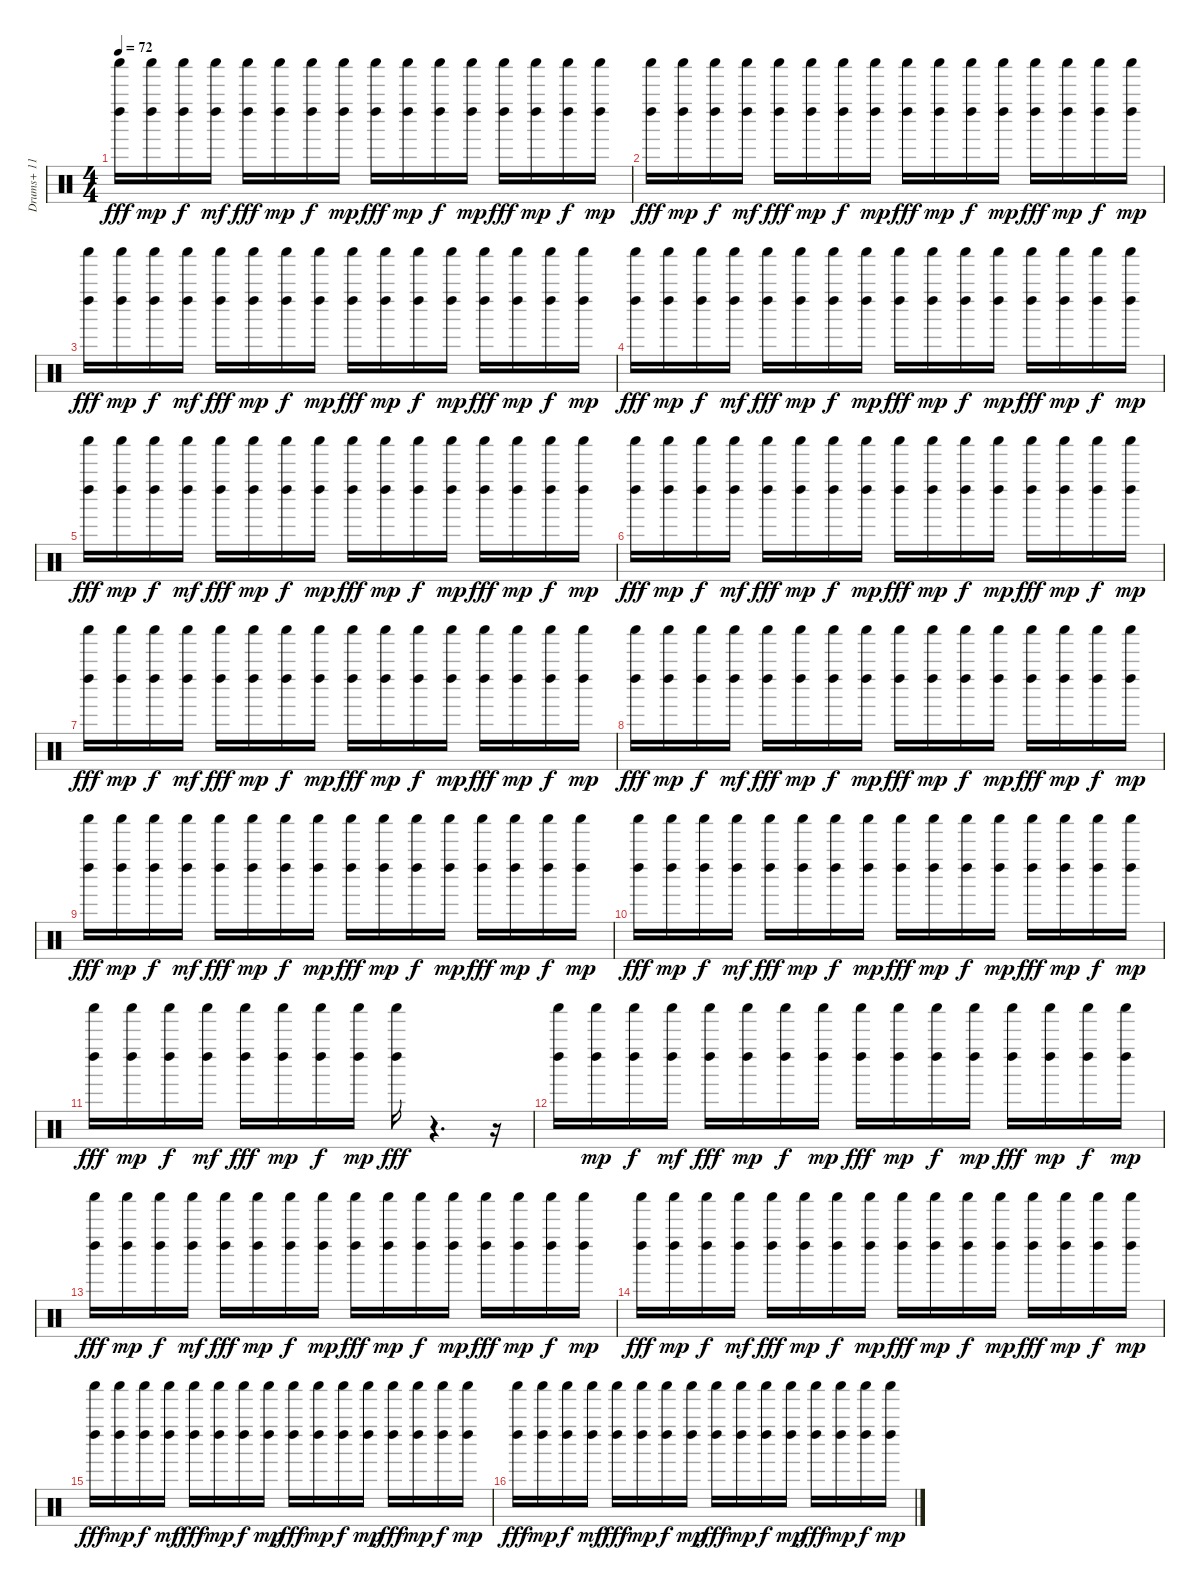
\track ("Drums+ 11" "Drums+ 11") {instrument percussion}
\staff {score}
\articulation defaults
\ts (4 4)
\tempo 72
\clef neutral
\ks c
("Shaker (hit)" "Left Maraca (hit)").16{dy fff} ("Shaker (hit)" "Left Maraca (hit)").16{dy mp} ("Shaker (hit)" "Left Maraca (hit)").16{dy f} ("Shaker (hit)" "Left Maraca (hit)").16{dy mf} ("Shaker (hit)" "Left Maraca (hit)").16{dy fff} ("Shaker (hit)" "Left Maraca (hit)").16{dy mp} ("Shaker (hit)" "Left Maraca (hit)").16{dy f} ("Shaker (hit)" "Left Maraca (hit)").16{dy mp} ("Shaker (hit)" "Left Maraca (hit)").16{dy fff} ("Shaker (hit)" "Left Maraca (hit)").16{dy mp} ("Shaker (hit)" "Left Maraca (hit)").16{dy f} ("Shaker (hit)" "Left Maraca (hit)").16{dy mp} ("Shaker (hit)" "Left Maraca (hit)").16{dy fff} ("Shaker (hit)" "Left Maraca (hit)").16{dy mp} ("Shaker (hit)" "Left Maraca (hit)").16{dy f} ("Shaker (hit)" "Left Maraca (hit)").16{dy mp} |
("Shaker (hit)" "Left Maraca (hit)").16{dy fff} ("Shaker (hit)" "Left Maraca (hit)").16{dy mp} ("Shaker (hit)" "Left Maraca (hit)").16{dy f} ("Shaker (hit)" "Left Maraca (hit)").16{dy mf} ("Shaker (hit)" "Left Maraca (hit)").16{dy fff} ("Shaker (hit)" "Left Maraca (hit)").16{dy mp} ("Shaker (hit)" "Left Maraca (hit)").16{dy f} ("Shaker (hit)" "Left Maraca (hit)").16{dy mp} ("Shaker (hit)" "Left Maraca (hit)").16{dy fff} ("Shaker (hit)" "Left Maraca (hit)").16{dy mp} ("Shaker (hit)" "Left Maraca (hit)").16{dy f} ("Shaker (hit)" "Left Maraca (hit)").16{dy mp} ("Shaker (hit)" "Left Maraca (hit)").16{dy fff} ("Shaker (hit)" "Left Maraca (hit)").16{dy mp} ("Shaker (hit)" "Left Maraca (hit)").16{dy f} ("Shaker (hit)" "Left Maraca (hit)").16{dy mp} |
("Shaker (hit)" "Left Maraca (hit)").16{dy fff} ("Shaker (hit)" "Left Maraca (hit)").16{dy mp} ("Shaker (hit)" "Left Maraca (hit)").16{dy f} ("Shaker (hit)" "Left Maraca (hit)").16{dy mf} ("Shaker (hit)" "Left Maraca (hit)").16{dy fff} ("Shaker (hit)" "Left Maraca (hit)").16{dy mp} ("Shaker (hit)" "Left Maraca (hit)").16{dy f} ("Shaker (hit)" "Left Maraca (hit)").16{dy mp} ("Shaker (hit)" "Left Maraca (hit)").16{dy fff} ("Shaker (hit)" "Left Maraca (hit)").16{dy mp} ("Shaker (hit)" "Left Maraca (hit)").16{dy f} ("Shaker (hit)" "Left Maraca (hit)").16{dy mp} ("Shaker (hit)" "Left Maraca (hit)").16{dy fff} ("Shaker (hit)" "Left Maraca (hit)").16{dy mp} ("Shaker (hit)" "Left Maraca (hit)").16{dy f} ("Shaker (hit)" "Left Maraca (hit)").16{dy mp} |
("Shaker (hit)" "Left Maraca (hit)").16{dy fff} ("Shaker (hit)" "Left Maraca (hit)").16{dy mp} ("Shaker (hit)" "Left Maraca (hit)").16{dy f} ("Shaker (hit)" "Left Maraca (hit)").16{dy mf} ("Shaker (hit)" "Left Maraca (hit)").16{dy fff} ("Shaker (hit)" "Left Maraca (hit)").16{dy mp} ("Shaker (hit)" "Left Maraca (hit)").16{dy f} ("Shaker (hit)" "Left Maraca (hit)").16{dy mp} ("Shaker (hit)" "Left Maraca (hit)").16{dy fff} ("Shaker (hit)" "Left Maraca (hit)").16{dy mp} ("Shaker (hit)" "Left Maraca (hit)").16{dy f} ("Shaker (hit)" "Left Maraca (hit)").16{dy mp} ("Shaker (hit)" "Left Maraca (hit)").16{dy fff} ("Shaker (hit)" "Left Maraca (hit)").16{dy mp} ("Shaker (hit)" "Left Maraca (hit)").16{dy f} ("Shaker (hit)" "Left Maraca (hit)").16{dy mp} |
("Shaker (hit)" "Left Maraca (hit)").16{dy fff} ("Shaker (hit)" "Left Maraca (hit)").16{dy mp} ("Shaker (hit)" "Left Maraca (hit)").16{dy f} ("Shaker (hit)" "Left Maraca (hit)").16{dy mf} ("Shaker (hit)" "Left Maraca (hit)").16{dy fff} ("Shaker (hit)" "Left Maraca (hit)").16{dy mp} ("Shaker (hit)" "Left Maraca (hit)").16{dy f} ("Shaker (hit)" "Left Maraca (hit)").16{dy mp} ("Shaker (hit)" "Left Maraca (hit)").16{dy fff} ("Shaker (hit)" "Left Maraca (hit)").16{dy mp} ("Shaker (hit)" "Left Maraca (hit)").16{dy f} ("Shaker (hit)" "Left Maraca (hit)").16{dy mp} ("Shaker (hit)" "Left Maraca (hit)").16{dy fff} ("Shaker (hit)" "Left Maraca (hit)").16{dy mp} ("Shaker (hit)" "Left Maraca (hit)").16{dy f} ("Shaker (hit)" "Left Maraca (hit)").16{dy mp} |
("Shaker (hit)" "Left Maraca (hit)").16{dy fff} ("Shaker (hit)" "Left Maraca (hit)").16{dy mp} ("Shaker (hit)" "Left Maraca (hit)").16{dy f} ("Shaker (hit)" "Left Maraca (hit)").16{dy mf} ("Shaker (hit)" "Left Maraca (hit)").16{dy fff} ("Shaker (hit)" "Left Maraca (hit)").16{dy mp} ("Shaker (hit)" "Left Maraca (hit)").16{dy f} ("Shaker (hit)" "Left Maraca (hit)").16{dy mp} ("Shaker (hit)" "Left Maraca (hit)").16{dy fff} ("Shaker (hit)" "Left Maraca (hit)").16{dy mp} ("Shaker (hit)" "Left Maraca (hit)").16{dy f} ("Shaker (hit)" "Left Maraca (hit)").16{dy mp} ("Shaker (hit)" "Left Maraca (hit)").16{dy fff} ("Shaker (hit)" "Left Maraca (hit)").16{dy mp} ("Shaker (hit)" "Left Maraca (hit)").16{dy f} ("Shaker (hit)" "Left Maraca (hit)").16{dy mp} |
("Shaker (hit)" "Left Maraca (hit)").16{dy fff} ("Shaker (hit)" "Left Maraca (hit)").16{dy mp} ("Shaker (hit)" "Left Maraca (hit)").16{dy f} ("Shaker (hit)" "Left Maraca (hit)").16{dy mf} ("Shaker (hit)" "Left Maraca (hit)").16{dy fff} ("Shaker (hit)" "Left Maraca (hit)").16{dy mp} ("Shaker (hit)" "Left Maraca (hit)").16{dy f} ("Shaker (hit)" "Left Maraca (hit)").16{dy mp} ("Shaker (hit)" "Left Maraca (hit)").16{dy fff} ("Shaker (hit)" "Left Maraca (hit)").16{dy mp} ("Shaker (hit)" "Left Maraca (hit)").16{dy f} ("Shaker (hit)" "Left Maraca (hit)").16{dy mp} ("Shaker (hit)" "Left Maraca (hit)").16{dy fff} ("Shaker (hit)" "Left Maraca (hit)").16{dy mp} ("Shaker (hit)" "Left Maraca (hit)").16{dy f} ("Shaker (hit)" "Left Maraca (hit)").16{dy mp} |
("Shaker (hit)" "Left Maraca (hit)").16{dy fff} ("Shaker (hit)" "Left Maraca (hit)").16{dy mp} ("Shaker (hit)" "Left Maraca (hit)").16{dy f} ("Shaker (hit)" "Left Maraca (hit)").16{dy mf} ("Shaker (hit)" "Left Maraca (hit)").16{dy fff} ("Shaker (hit)" "Left Maraca (hit)").16{dy mp} ("Shaker (hit)" "Left Maraca (hit)").16{dy f} ("Shaker (hit)" "Left Maraca (hit)").16{dy mp} ("Shaker (hit)" "Left Maraca (hit)").16{dy fff} ("Shaker (hit)" "Left Maraca (hit)").16{dy mp} ("Shaker (hit)" "Left Maraca (hit)").16{dy f} ("Shaker (hit)" "Left Maraca (hit)").16{dy mp} ("Shaker (hit)" "Left Maraca (hit)").16{dy fff} ("Shaker (hit)" "Left Maraca (hit)").16{dy mp} ("Shaker (hit)" "Left Maraca (hit)").16{dy f} ("Shaker (hit)" "Left Maraca (hit)").16{dy mp} |
("Shaker (hit)" "Left Maraca (hit)").16{dy fff} ("Shaker (hit)" "Left Maraca (hit)").16{dy mp} ("Shaker (hit)" "Left Maraca (hit)").16{dy f} ("Shaker (hit)" "Left Maraca (hit)").16{dy mf} ("Shaker (hit)" "Left Maraca (hit)").16{dy fff} ("Shaker (hit)" "Left Maraca (hit)").16{dy mp} ("Shaker (hit)" "Left Maraca (hit)").16{dy f} ("Shaker (hit)" "Left Maraca (hit)").16{dy mp} ("Shaker (hit)" "Left Maraca (hit)").16{dy fff} ("Shaker (hit)" "Left Maraca (hit)").16{dy mp} ("Shaker (hit)" "Left Maraca (hit)").16{dy f} ("Shaker (hit)" "Left Maraca (hit)").16{dy mp} ("Shaker (hit)" "Left Maraca (hit)").16{dy fff} ("Shaker (hit)" "Left Maraca (hit)").16{dy mp} ("Shaker (hit)" "Left Maraca (hit)").16{dy f} ("Shaker (hit)" "Left Maraca (hit)").16{dy mp} |
("Shaker (hit)" "Left Maraca (hit)").16{dy fff} ("Shaker (hit)" "Left Maraca (hit)").16{dy mp} ("Shaker (hit)" "Left Maraca (hit)").16{dy f} ("Shaker (hit)" "Left Maraca (hit)").16{dy mf} ("Shaker (hit)" "Left Maraca (hit)").16{dy fff} ("Shaker (hit)" "Left Maraca (hit)").16{dy mp} ("Shaker (hit)" "Left Maraca (hit)").16{dy f} ("Shaker (hit)" "Left Maraca (hit)").16{dy mp} ("Shaker (hit)" "Left Maraca (hit)").16{dy fff} ("Shaker (hit)" "Left Maraca (hit)").16{dy mp} ("Shaker (hit)" "Left Maraca (hit)").16{dy f} ("Shaker (hit)" "Left Maraca (hit)").16{dy mp} ("Shaker (hit)" "Left Maraca (hit)").16{dy fff} ("Shaker (hit)" "Left Maraca (hit)").16{dy mp} ("Shaker (hit)" "Left Maraca (hit)").16{dy f} ("Shaker (hit)" "Left Maraca (hit)").16{dy mp} |
("Shaker (hit)" "Left Maraca (hit)").16{dy fff} ("Shaker (hit)" "Left Maraca (hit)").16{dy mp} ("Shaker (hit)" "Left Maraca (hit)").16{dy f} ("Shaker (hit)" "Left Maraca (hit)").16{dy mf} ("Shaker (hit)" "Left Maraca (hit)").16{dy fff} ("Shaker (hit)" "Left Maraca (hit)").16{dy mp} ("Shaker (hit)" "Left Maraca (hit)").16{dy f} ("Shaker (hit)" "Left Maraca (hit)").16{dy mp} ("Shaker (hit)" "Left Maraca (hit)").16{dy fff} r.4{d} r.16 |
("Shaker (hit)" "Left Maraca (hit)").16 ("Shaker (hit)" "Left Maraca (hit)").16{dy mp} ("Shaker (hit)" "Left Maraca (hit)").16{dy f} ("Shaker (hit)" "Left Maraca (hit)").16{dy mf} ("Shaker (hit)" "Left Maraca (hit)").16{dy fff} ("Shaker (hit)" "Left Maraca (hit)").16{dy mp} ("Shaker (hit)" "Left Maraca (hit)").16{dy f} ("Shaker (hit)" "Left Maraca (hit)").16{dy mp} ("Shaker (hit)" "Left Maraca (hit)").16{dy fff} ("Shaker (hit)" "Left Maraca (hit)").16{dy mp} ("Shaker (hit)" "Left Maraca (hit)").16{dy f} ("Shaker (hit)" "Left Maraca (hit)").16{dy mp} ("Shaker (hit)" "Left Maraca (hit)").16{dy fff} ("Shaker (hit)" "Left Maraca (hit)").16{dy mp} ("Shaker (hit)" "Left Maraca (hit)").16{dy f} ("Shaker (hit)" "Left Maraca (hit)").16{dy mp} |
("Shaker (hit)" "Left Maraca (hit)").16{dy fff} ("Shaker (hit)" "Left Maraca (hit)").16{dy mp} ("Shaker (hit)" "Left Maraca (hit)").16{dy f} ("Shaker (hit)" "Left Maraca (hit)").16{dy mf} ("Shaker (hit)" "Left Maraca (hit)").16{dy fff} ("Shaker (hit)" "Left Maraca (hit)").16{dy mp} ("Shaker (hit)" "Left Maraca (hit)").16{dy f} ("Shaker (hit)" "Left Maraca (hit)").16{dy mp} ("Shaker (hit)" "Left Maraca (hit)").16{dy fff} ("Shaker (hit)" "Left Maraca (hit)").16{dy mp} ("Shaker (hit)" "Left Maraca (hit)").16{dy f} ("Shaker (hit)" "Left Maraca (hit)").16{dy mp} ("Shaker (hit)" "Left Maraca (hit)").16{dy fff} ("Shaker (hit)" "Left Maraca (hit)").16{dy mp} ("Shaker (hit)" "Left Maraca (hit)").16{dy f} ("Shaker (hit)" "Left Maraca (hit)").16{dy mp} |
("Shaker (hit)" "Left Maraca (hit)").16{dy fff} ("Shaker (hit)" "Left Maraca (hit)").16{dy mp} ("Shaker (hit)" "Left Maraca (hit)").16{dy f} ("Shaker (hit)" "Left Maraca (hit)").16{dy mf} ("Shaker (hit)" "Left Maraca (hit)").16{dy fff} ("Shaker (hit)" "Left Maraca (hit)").16{dy mp} ("Shaker (hit)" "Left Maraca (hit)").16{dy f} ("Shaker (hit)" "Left Maraca (hit)").16{dy mp} ("Shaker (hit)" "Left Maraca (hit)").16{dy fff} ("Shaker (hit)" "Left Maraca (hit)").16{dy mp} ("Shaker (hit)" "Left Maraca (hit)").16{dy f} ("Shaker (hit)" "Left Maraca (hit)").16{dy mp} ("Shaker (hit)" "Left Maraca (hit)").16{dy fff} ("Shaker (hit)" "Left Maraca (hit)").16{dy mp} ("Shaker (hit)" "Left Maraca (hit)").16{dy f} ("Shaker (hit)" "Left Maraca (hit)").16{dy mp} |
("Shaker (hit)" "Left Maraca (hit)").16{dy fff} ("Shaker (hit)" "Left Maraca (hit)").16{dy mp} ("Shaker (hit)" "Left Maraca (hit)").16{dy f} ("Shaker (hit)" "Left Maraca (hit)").16{dy mf} ("Shaker (hit)" "Left Maraca (hit)").16{dy fff} ("Shaker (hit)" "Left Maraca (hit)").16{dy mp} ("Shaker (hit)" "Left Maraca (hit)").16{dy f} ("Shaker (hit)" "Left Maraca (hit)").16{dy mp} ("Shaker (hit)" "Left Maraca (hit)").16{dy fff} ("Shaker (hit)" "Left Maraca (hit)").16{dy mp} ("Shaker (hit)" "Left Maraca (hit)").16{dy f} ("Shaker (hit)" "Left Maraca (hit)").16{dy mp} ("Shaker (hit)" "Left Maraca (hit)").16{dy fff} ("Shaker (hit)" "Left Maraca (hit)").16{dy mp} ("Shaker (hit)" "Left Maraca (hit)").16{dy f} ("Shaker (hit)" "Left Maraca (hit)").16{dy mp} |
("Shaker (hit)" "Left Maraca (hit)").16{dy fff} ("Shaker (hit)" "Left Maraca (hit)").16{dy mp} ("Shaker (hit)" "Left Maraca (hit)").16{dy f} ("Shaker (hit)" "Left Maraca (hit)").16{dy mf} ("Shaker (hit)" "Left Maraca (hit)").16{dy fff} ("Shaker (hit)" "Left Maraca (hit)").16{dy mp} ("Shaker (hit)" "Left Maraca (hit)").16{dy f} ("Shaker (hit)" "Left Maraca (hit)").16{dy mp} ("Shaker (hit)" "Left Maraca (hit)").16{dy fff} ("Shaker (hit)" "Left Maraca (hit)").16{dy mp} ("Shaker (hit)" "Left Maraca (hit)").16{dy f} ("Shaker (hit)" "Left Maraca (hit)").16{dy mp} ("Shaker (hit)" "Left Maraca (hit)").16{dy fff} ("Shaker (hit)" "Left Maraca (hit)").16{dy mp} ("Shaker (hit)" "Left Maraca (hit)").16{dy f} ("Shaker (hit)" "Left Maraca (hit)").16{dy mp}
